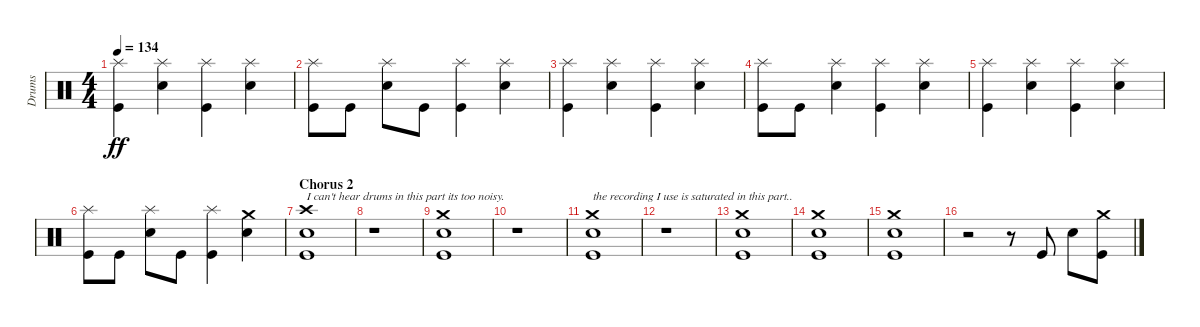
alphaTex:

\track ("Drums" "Drums") {instrument percussion}
\staff {score}
\articulation defaults
\ts (4 4)
\tempo 134
\clef neutral
\ks c
("Splash (hit)" "Kick (hit)").4{dy ff} ("Splash (hit)" "Snare (hit) 2").4 ("Splash (hit)" "Kick (hit)").4 ("Splash (hit)" "Snare (hit) 2").4 |
("Splash (hit)" "Kick (hit)").8 "Kick (hit)".8 ("Splash (hit)" "Snare (hit) 2").8 "Kick (hit)".8 ("Splash (hit)" "Kick (hit)").4 ("Splash (hit)" "Snare (hit) 2").4 |
("Splash (hit)" "Kick (hit)").4 ("Splash (hit)" "Snare (hit) 2").4 ("Splash (hit)" "Kick (hit)").4 ("Splash (hit)" "Snare (hit) 2").4 |
("Splash (hit)" "Kick (hit)").8 "Kick (hit)".8 ("Splash (hit)" "Snare (hit) 2").4 ("Splash (hit)" "Kick (hit)").4 ("Splash (hit)" "Snare (hit) 2").4 |
("Splash (hit)" "Kick (hit)").4 ("Splash (hit)" "Snare (hit) 2").4 ("Splash (hit)" "Kick (hit)").4 ("Splash (hit)" "Snare (hit) 2").4 |
("Splash (hit)" "Kick (hit)").8 "Kick (hit)".8 ("Splash (hit)" "Snare (hit) 2").8 "Kick (hit)".8 ("Splash (hit)" "Kick (hit)").4 ("Crash medium (hit)" "Snare (hit) 2").4 |
\section ("" "Chorus 2")
("Crash high (hit)" "Snare (hit) 2" "Kick (hit)").1{txt "I can't hear drums in this part its too noisy."} |
r.1 |
("Crash medium (hit)" "Snare (hit) 2" "Kick (hit)").1 |
r.1 |
("Crash medium (hit)" "Snare (hit) 2" "Kick (hit)").1{txt "the recording I use is saturated in this part.."} |
r.1 |
("Crash medium (hit)" "Snare (hit) 2" "Kick (hit)").1 |
("Crash medium (hit)" "Snare (hit) 2" "Kick (hit)").1 |
("Crash medium (hit)" "Snare (hit) 2" "Kick (hit)").1 |
r.2 r.8 "Kick (hit)".8 "Snare (hit) 2".8 ("Crash medium (hit)" "Kick (hit)").8
